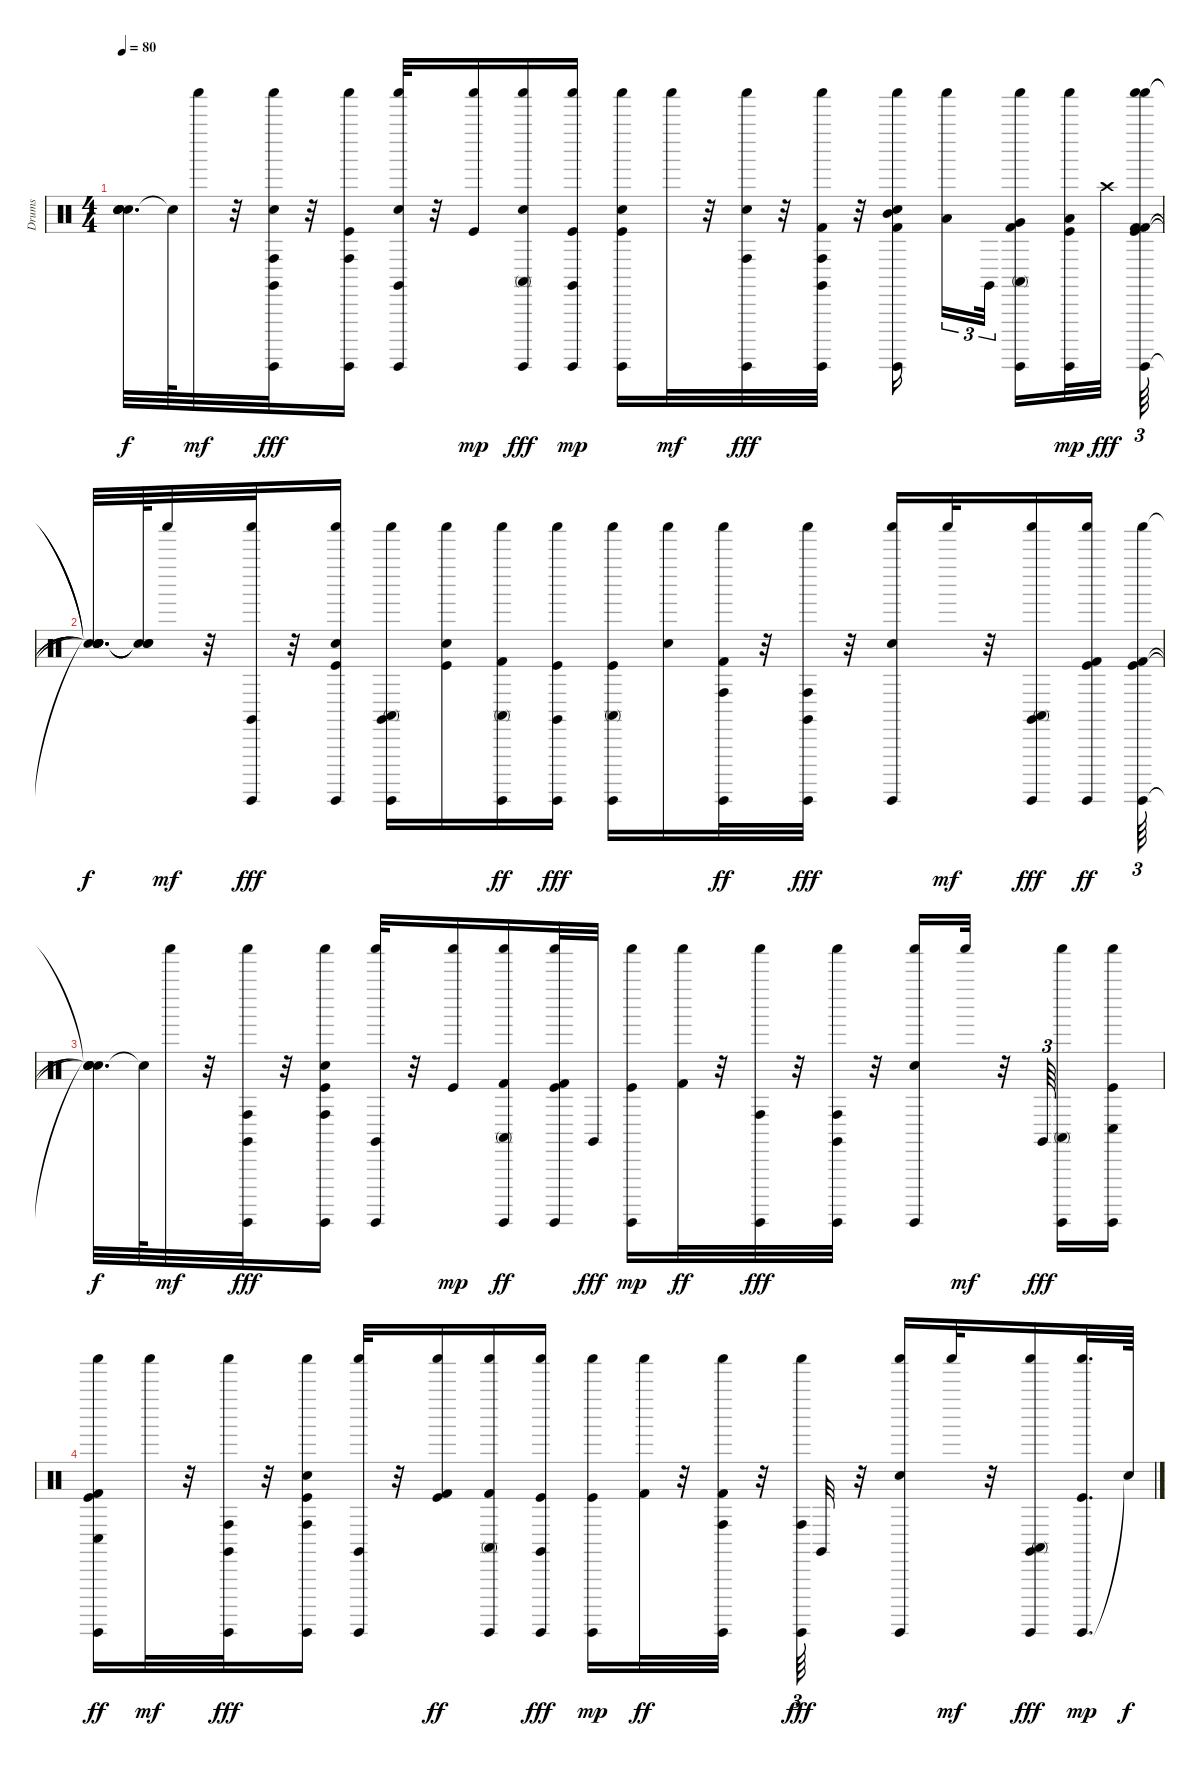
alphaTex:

\track ("Drums" "Drums") {instrument percussion}
\staff {score}
\articulation defaults
\ts (4 4)
\tempo 80
\clef neutral
\ks c
("Snare (hit)"{t} "Snare (hit)"{t} "Snare (hit)"{t} "Snare (hit)"{t} "Snare (hit)"{t}).32{d dy f} "Snare (hit)"{t}.64 "Shaker (hit)".32{dy mf} r.32 ("Claves (hit)" "Electric Snare (hit)" "Guiro (hit)" "Shaker (hit)" "Conga high (hit)").32{dy fff} r.32 ("Guiro (hit)" "Shaker (hit)" "Kick (hit)" "Conga high (hit)").16 ("Claves (hit)" "Electric Snare (hit)" "Guiro (hit)" "Shaker (hit)").32 r.32 ("Shaker (hit)" "Kick (hit)").16{dy mp} ("Electric Snare (hit)" "Guiro (hit)" "Shaker (hit)" "Conga high (mute)").16{dy fff} ("Claves (hit)" "Guiro (hit)" "Shaker (hit)" "Kick (hit)").16{dy mp} ("Electric Snare (hit)" "Guiro (hit)" "Shaker (hit)" "Kick (hit)").16 "Shaker (hit)".32{dy mf} r.32 ("Electric Snare (hit)" "Guiro (hit)" "Shaker (hit)" "Conga high (hit)").32{dy fff} r.32 ("Claves (hit)" "Kick (hit) 2" "Guiro (hit)" "Shaker (hit)" "Conga high (hit)").32 r.32 ("Electric Snare (hit)" "Mid Tom (hit)" "Kick (hit) 2" "Guiro (hit)" "Shaker (hit)").16 ("Shaker (hit)" "Low Tom (hit)").16{tu (3 2)} "Claves (hit)".32{tu (3 2)} ("Kick (hit) 2" "Guiro (hit)" "Shaker (hit)" "Conga high (mute)" "Very Low Tom (hit)").16 ("Low Floor Tom (hit)" "Guiro (hit)" "Shaker (hit)" "Kick (hit)").32{dy mp} "Crash high (hit)".32{dy fff} ("Guiro (hit)" "Shaker (hit)" "Kick (hit)" "Kick (hit) 2" "Kick (hit) 2" "Shaker (hit)").64{tu (3 2)} |
("Snare (hit)"{t} "Snare (hit)"{t} "Snare (hit)"{t} "Snare (hit)"{t} "Snare (hit)"{t} "Snare (hit)"{t}).32{d dy f} ("Snare (hit)"{t} "Snare (hit)"{t} "Snare (hit)"{t}).64 "Shaker (hit)".32{dy mf} r.32 ("Guiro (hit)" "Shaker (hit)" "Claves (hit)").32{dy fff} r.32 ("Guiro (hit)" "Shaker (hit)" "Kick (hit)" "Electric Snare (hit)").16 ("Claves (hit)" "Guiro (hit)" "Shaker (hit)" "Conga high (mute)").16 ("Shaker (hit)" "Kick (hit)" "Electric Snare (hit)").16 ("Guiro (hit)" "Shaker (hit)" "Conga high (mute)" "Kick (hit) 2").16{dy ff} ("Guiro (hit)" "Shaker (hit)" "Kick (hit)" "Claves (hit)").16{dy fff} ("Guiro (hit)" "Shaker (hit)" "Kick (hit)" "Conga high (mute)").16 ("Shaker (hit)" "Electric Snare (hit)").16 ("Guiro (hit)" "Shaker (hit)" "Conga high (hit)" "Kick (hit) 2").32{dy ff} r.32 ("Claves (hit)" "Guiro (hit)" "Shaker (hit)" "Conga high (hit)").32{dy fff} r.32 ("Guiro (hit)" "Shaker (hit)" "Electric Snare (hit)").16 "Shaker (hit)".32{dy mf} r.32 ("Claves (hit)" "Guiro (hit)" "Shaker (hit)" "Conga high (mute)").16{dy fff} ("Guiro (hit)" "Shaker (hit)" "Kick (hit)" "Kick (hit) 2").16{dy ff} ("Guiro (hit)" "Shaker (hit)" "Kick (hit)" "Kick (hit) 2").64{tu (3 2)} |
("Snare (hit)"{t} "Snare (hit)"{t} "Snare (hit)"{t} "Snare (hit)"{t}).32{d dy f} "Snare (hit)"{t}.64 "Shaker (hit)".32{dy mf} r.32 ("Guiro (hit)" "Shaker (hit)" "Conga high (hit)" "Claves (hit)").32{dy fff} r.32 ("Guiro (hit)" "Shaker (hit)" "Kick (hit)" "Conga high (hit)" "Electric Snare (hit)").16 ("Claves (hit)" "Guiro (hit)" "Shaker (hit)").32 r.32 ("Shaker (hit)" "Kick (hit)").16{dy mp} ("Guiro (hit)" "Shaker (hit)" "Conga high (mute)" "Kick (hit) 2").16{dy ff} ("Guiro (hit)" "Shaker (hit)" "Kick (hit)" "Kick (hit) 2").32 "Claves (hit)".32{dy fff} ("Guiro (hit)" "Shaker (hit)" "Kick (hit)").16{dy mp} ("Shaker (hit)" "Kick (hit) 2").32{dy ff} r.32 ("Guiro (hit)" "Shaker (hit)" "Conga high (hit)").32{dy fff} r.32 ("Claves (hit)" "Guiro (hit)" "Shaker (hit)" "Conga high (hit)").32 r.32 ("Guiro (hit)" "Shaker (hit)" "Electric Snare (hit)").16 "Shaker (hit)".32{dy mf} r.32 "Claves (hit)".64{tu (3 2) dy fff} ("Guiro (hit)" "Shaker (hit)" "Conga high (mute)").16 ("Guiro (hit)" "Shaker (hit)" "Kick (hit)" "Conga low (hit)").16 |
("Guiro (hit)" "Shaker (hit)" "Kick (hit)" "Conga low (hit)" "Kick (hit) 2").16{dy ff} "Shaker (hit)".32{dy mf} r.32 ("Claves (hit)" "Guiro (hit)" "Shaker (hit)" "Conga high (hit)").32{dy fff} r.32 ("Guiro (hit)" "Shaker (hit)" "Kick (hit)" "Conga high (hit)" "Electric Snare (hit)").16 ("Claves (hit)" "Guiro (hit)" "Shaker (hit)").32 r.32 ("Shaker (hit)" "Kick (hit)" "Kick (hit) 2").16{dy ff} ("Guiro (hit)" "Shaker (hit)" "Conga high (mute)" "Kick (hit) 2").16 ("Guiro (hit)" "Shaker (hit)" "Kick (hit)" "Claves (hit)").16{dy fff} ("Guiro (hit)" "Shaker (hit)" "Kick (hit)").16{dy mp} ("Shaker (hit)" "Kick (hit) 2").32{dy ff} r.32 ("Guiro (hit)" "Shaker (hit)" "Conga high (hit)" "Kick (hit) 2").32 r.32 ("Guiro (hit)" "Shaker (hit)" "Conga high (hit)").64{tu (3 2) dy fff} "Claves (hit)".32 r.32 ("Guiro (hit)" "Shaker (hit)" "Electric Snare (hit)").16 "Shaker (hit)".32{dy mf} r.32 ("Guiro (hit)" "Shaker (hit)" "Conga high (mute)" "Claves (hit)").16{dy fff} ("Guiro (hit)" "Shaker (hit)" "Kick (hit)").32{d dy mp} "Snare (hit)"{t}.64{dy f}
